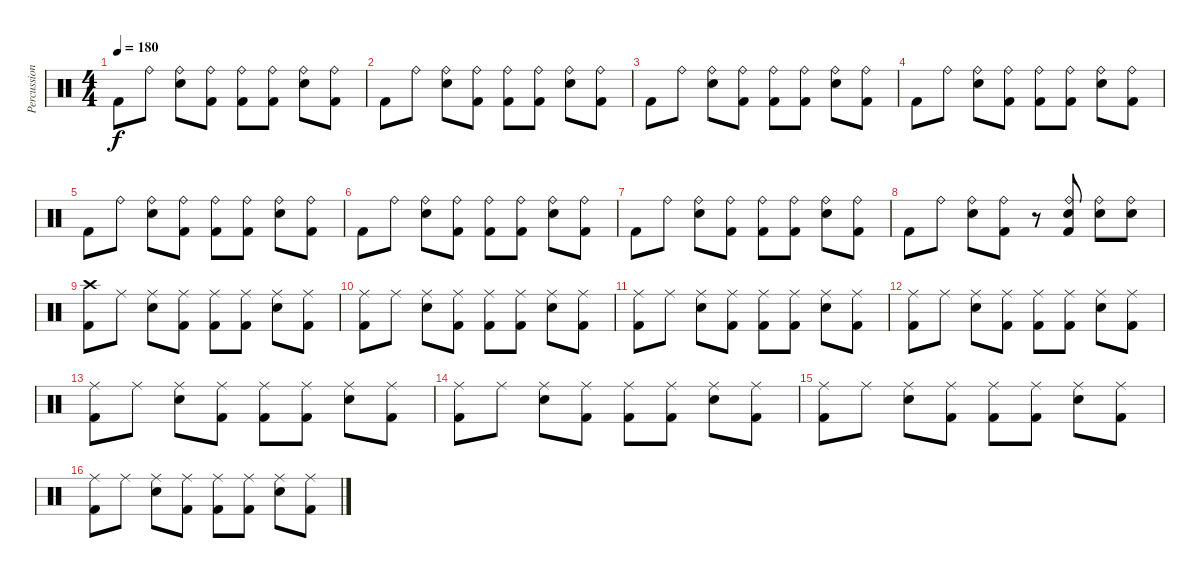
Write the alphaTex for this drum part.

\track ("Percussions" "Percussion") {instrument percussion}
\staff {score}
\articulation defaults
\ts (4 4)
\tempo 180
\clef neutral
\ks c "Kick (hit) 2".8{dy f} "Ride (bell)".8
("Ride (bell)" "Snare (hit) 2").8 ("Ride (bell)" "Kick (hit) 2").8 ("Ride (bell)" "Kick (hit) 2").8 ("Ride (bell)" "Kick (hit) 2").8 ("Ride (bell)" "Snare (hit) 2").8 ("Ride (bell)" "Kick (hit) 2").8 |
"Kick (hit) 2".8 "Ride (bell)".8 ("Ride (bell)" "Snare (hit) 2").8 ("Ride (bell)" "Kick (hit) 2").8 ("Ride (bell)" "Kick (hit) 2").8 ("Ride (bell)" "Kick (hit) 2").8 ("Ride (bell)" "Snare (hit) 2").8 ("Ride (bell)" "Kick (hit) 2").8 |
"Kick (hit) 2".8 "Ride (bell)".8 ("Ride (bell)" "Snare (hit) 2").8 ("Ride (bell)" "Kick (hit) 2").8 ("Ride (bell)" "Kick (hit) 2").8 ("Ride (bell)" "Kick (hit) 2").8 ("Ride (bell)" "Snare (hit) 2").8 ("Ride (bell)" "Kick (hit) 2").8 |
"Kick (hit) 2".8 "Ride (bell)".8 ("Ride (bell)" "Snare (hit) 2").8 ("Ride (bell)" "Kick (hit) 2").8 ("Ride (bell)" "Kick (hit) 2").8 ("Ride (bell)" "Kick (hit) 2").8 ("Ride (bell)" "Snare (hit) 2").8 ("Ride (bell)" "Kick (hit) 2").8 |
"Kick (hit) 2".8 "Ride (bell)".8 ("Ride (bell)" "Snare (hit) 2").8 ("Ride (bell)" "Kick (hit) 2").8 ("Ride (bell)" "Kick (hit) 2").8 ("Ride (bell)" "Kick (hit) 2").8 ("Ride (bell)" "Snare (hit) 2").8 ("Ride (bell)" "Kick (hit) 2").8 |
"Kick (hit) 2".8 "Ride (bell)".8 ("Ride (bell)" "Snare (hit) 2").8 ("Ride (bell)" "Kick (hit) 2").8 ("Ride (bell)" "Kick (hit) 2").8 ("Ride (bell)" "Kick (hit) 2").8 ("Ride (bell)" "Snare (hit) 2").8 ("Ride (bell)" "Kick (hit) 2").8 |
"Kick (hit) 2".8 "Ride (bell)".8 ("Ride (bell)" "Snare (hit) 2").8 ("Ride (bell)" "Kick (hit) 2").8 ("Ride (bell)" "Kick (hit) 2").8 ("Ride (bell)" "Kick (hit) 2").8 ("Ride (bell)" "Snare (hit) 2").8 ("Ride (bell)" "Kick (hit) 2").8 |
"Kick (hit) 2".8 "Ride (bell)".8 ("Ride (bell)" "Snare (hit) 2").8 ("Ride (bell)" "Kick (hit) 2").8 r.8 ("Ride (bell)" "Snare (hit) 2" "Kick (hit) 2").8 ("Ride (bell)" "Snare (hit) 2").8 ("Ride (bell)" "Snare (hit) 2").8 |
("Crash high (hit)" "Kick (hit) 2").8 "Ride (middle)".8 ("Ride (middle)" "Snare (hit) 2").8 ("Ride (middle)" "Kick (hit) 2").8 ("Ride (middle)" "Kick (hit) 2").8 ("Ride (middle)" "Kick (hit) 2").8 ("Ride (middle)" "Snare (hit) 2").8 ("Ride (middle)" "Kick (hit) 2").8 |
("Ride (middle)" "Kick (hit) 2").8 "Ride (middle)".8 ("Ride (middle)" "Snare (hit) 2").8 ("Ride (middle)" "Kick (hit) 2").8 ("Ride (middle)" "Kick (hit) 2").8 ("Ride (middle)" "Kick (hit) 2").8 ("Ride (middle)" "Snare (hit) 2").8 ("Ride (middle)" "Kick (hit) 2").8 |
("Ride (middle)" "Kick (hit) 2").8 "Ride (middle)".8 ("Ride (middle)" "Snare (hit) 2").8 ("Ride (middle)" "Kick (hit) 2").8 ("Ride (middle)" "Kick (hit) 2").8 ("Ride (middle)" "Kick (hit) 2").8 ("Ride (middle)" "Snare (hit) 2").8 ("Ride (middle)" "Kick (hit) 2").8 |
("Ride (middle)" "Kick (hit) 2").8 "Ride (middle)".8 ("Ride (middle)" "Snare (hit) 2").8 ("Ride (middle)" "Kick (hit) 2").8 ("Ride (middle)" "Kick (hit) 2").8 ("Ride (middle)" "Kick (hit) 2").8 ("Ride (middle)" "Snare (hit) 2").8 ("Ride (middle)" "Kick (hit) 2").8 |
("Ride (middle)" "Kick (hit) 2").8 "Ride (middle)".8 ("Ride (middle)" "Snare (hit) 2").8 ("Ride (middle)" "Kick (hit) 2").8 ("Ride (middle)" "Kick (hit) 2").8 ("Ride (middle)" "Kick (hit) 2").8 ("Ride (middle)" "Snare (hit) 2").8 ("Ride (middle)" "Kick (hit) 2").8 |
("Ride (middle)" "Kick (hit) 2").8 "Ride (middle)".8 ("Ride (middle)" "Snare (hit) 2").8 ("Ride (middle)" "Kick (hit) 2").8 ("Ride (middle)" "Kick (hit) 2").8 ("Ride (middle)" "Kick (hit) 2").8 ("Ride (middle)" "Snare (hit) 2").8 ("Ride (middle)" "Kick (hit) 2").8 |
("Ride (middle)" "Kick (hit) 2").8 "Ride (middle)".8 ("Ride (middle)" "Snare (hit) 2").8 ("Ride (middle)" "Kick (hit) 2").8 ("Ride (middle)" "Kick (hit) 2").8 ("Ride (middle)" "Kick (hit) 2").8 ("Ride (middle)" "Snare (hit) 2").8 ("Ride (middle)" "Kick (hit) 2").8 |
("Ride (middle)" "Kick (hit) 2").8 "Ride (middle)".8 ("Ride (middle)" "Snare (hit) 2").8 ("Ride (middle)" "Kick (hit) 2").8 ("Ride (middle)" "Kick (hit) 2").8 ("Ride (middle)" "Kick (hit) 2").8 ("Ride (middle)" "Snare (hit) 2").8 ("Ride (middle)" "Kick (hit) 2").8
